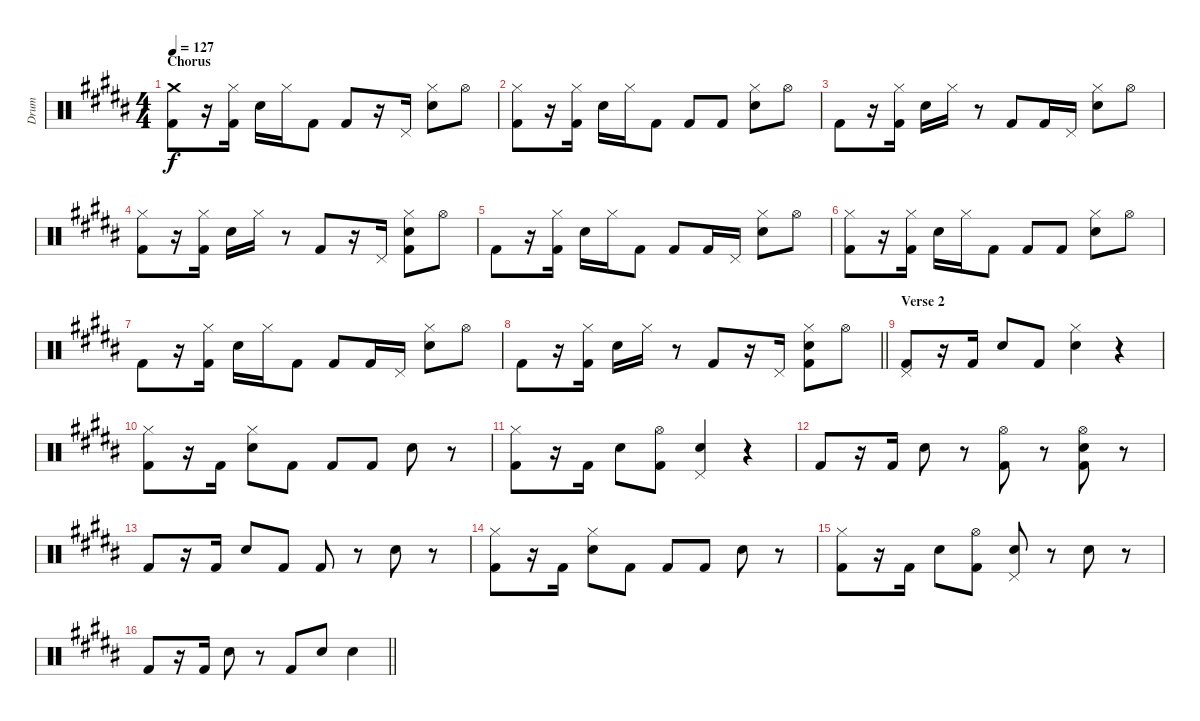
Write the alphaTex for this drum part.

\track ("Drum" "Drum") {instrument percussion}
\staff {score}
\articulation defaults
\ts (4 4)
\section ("" "Chorus")
\tempo 127
\clef neutral
\ks g#minor
("Crash medium (hit)" "Kick (hit) 2").8{dy f} r.16 ("Hi-Hat (closed)" "Kick (hit) 2").16 "Snare (hit) 2".16 "Hi-Hat (closed)".16 "Kick (hit) 2".8 "Kick (hit) 2".8 r.16 "Pedal Hi-Hat (hit)".16 ("Hi-Hat (closed)" "Snare (hit) 2").8 "Hi-Hat (open)".8 |
("Hi-Hat (closed)" "Kick (hit) 2").8 r.16 ("Hi-Hat (closed)" "Kick (hit) 2").16 "Snare (hit) 2".16 "Hi-Hat (closed)".16 "Kick (hit) 2".8 "Kick (hit) 2".8 "Kick (hit) 2".8 ("Hi-Hat (closed)" "Snare (hit) 2").8 "Hi-Hat (open)".8 |
"Kick (hit) 2".8 r.16 ("Hi-Hat (closed)" "Kick (hit) 2").16 "Snare (hit) 2".16 "Hi-Hat (closed)".16 r.8 "Kick (hit) 2".8 "Kick (hit) 2".16 "Pedal Hi-Hat (hit)".16 ("Hi-Hat (closed)" "Snare (hit) 2").8 "Hi-Hat (open)".8 |
("Hi-Hat (closed)" "Kick (hit) 2").8 r.16 ("Hi-Hat (closed)" "Kick (hit) 2").16 "Snare (hit) 2".16 "Hi-Hat (closed)".16 r.8 "Kick (hit) 2".8 r.16 "Pedal Hi-Hat (hit)".16 ("Hi-Hat (closed)" "Snare (hit) 2" "Kick (hit) 2").8 "Hi-Hat (open)".8 |
"Kick (hit) 2".8 r.16 ("Hi-Hat (closed)" "Kick (hit) 2").16 "Snare (hit) 2".16 "Hi-Hat (closed)".16 "Kick (hit) 2".8 "Kick (hit) 2".8 "Kick (hit) 2".16 "Pedal Hi-Hat (hit)".16 ("Hi-Hat (closed)" "Snare (hit) 2").8 "Hi-Hat (open)".8 |
("Hi-Hat (closed)" "Kick (hit) 2").8 r.16 ("Hi-Hat (closed)" "Kick (hit) 2").16 "Snare (hit) 2".16 "Hi-Hat (closed)".16 "Kick (hit) 2".8 "Kick (hit) 2".8 "Kick (hit) 2".8 ("Hi-Hat (closed)" "Snare (hit) 2").8 "Hi-Hat (open)".8 |
"Kick (hit) 2".8 r.16 ("Hi-Hat (closed)" "Kick (hit) 2").16 "Snare (hit) 2".16 "Hi-Hat (closed)".16 "Kick (hit) 2".8 "Kick (hit) 2".8 "Kick (hit) 2".16 "Pedal Hi-Hat (hit)".16 ("Hi-Hat (closed)" "Snare (hit) 2").8 "Hi-Hat (open)".8 |
\barLineRight lightlight "Kick (hit) 2".8
r.16 ("Hi-Hat (closed)" "Kick (hit) 2").16 "Snare (hit) 2".16 "Hi-Hat (closed)".16 r.8 "Kick (hit) 2".8 r.16 "Pedal Hi-Hat (hit)".16 ("Hi-Hat (closed)" "Snare (hit) 2" "Kick (hit) 2").8 "Hi-Hat (open)".8 |
\section ("" "Verse 2")
("Pedal Hi-Hat (hit)" "Kick (hit) 2").8 r.16 "Kick (hit) 2".16 "Snare (hit) 2".8 "Kick (hit) 2".8 ("Hi-Hat (closed)" "Snare (hit) 2").4 r.4 |
("Hi-Hat (closed)" "Kick (hit) 2").8 r.16 "Kick (hit) 2".16 ("Hi-Hat (closed)" "Snare (hit) 2").8 "Kick (hit) 2".8 "Kick (hit) 2".8 "Kick (hit) 2".8 "Snare (hit) 2".8 r.8 |
("Hi-Hat (closed)" "Kick (hit) 2").8 r.16 "Kick (hit) 2".16 "Snare (hit) 2".8 ("Hi-Hat (open)" "Kick (hit) 2").8 ("Pedal Hi-Hat (hit)" "Snare (hit) 2").4 r.4 |
"Kick (hit) 2".8 r.16 "Kick (hit) 2".16 "Snare (hit) 2".8 r.8 ("Hi-Hat (open)" "Kick (hit) 2").8 r.8 ("Hi-Hat (open)" "Snare (hit) 2" "Kick (hit) 2").8 r.8 |
"Kick (hit) 2".8 r.16 "Kick (hit) 2".16 "Snare (hit) 2".8 "Kick (hit) 2".8 "Kick (hit) 2".8 r.8 "Snare (hit) 2".8 r.8 |
("Hi-Hat (closed)" "Kick (hit) 2").8 r.16 "Kick (hit) 2".16 ("Hi-Hat (closed)" "Snare (hit) 2").8 "Kick (hit) 2".8 "Kick (hit) 2".8 "Kick (hit) 2".8 "Snare (hit) 2".8 r.8 |
("Hi-Hat (closed)" "Kick (hit) 2").8 r.16 "Kick (hit) 2".16 "Snare (hit) 2".8 ("Hi-Hat (open)" "Kick (hit) 2").8 ("Pedal Hi-Hat (hit)" "Snare (hit) 2").8 r.8 "Snare (hit) 2".8 r.8 |
\barLineRight lightlight "Kick (hit) 2".8
r.16 "Kick (hit) 2".16 "Snare (hit) 2".8 r.8 "Kick (hit) 2".8 "Snare (hit) 2".8 "Snare (hit) 2".4
